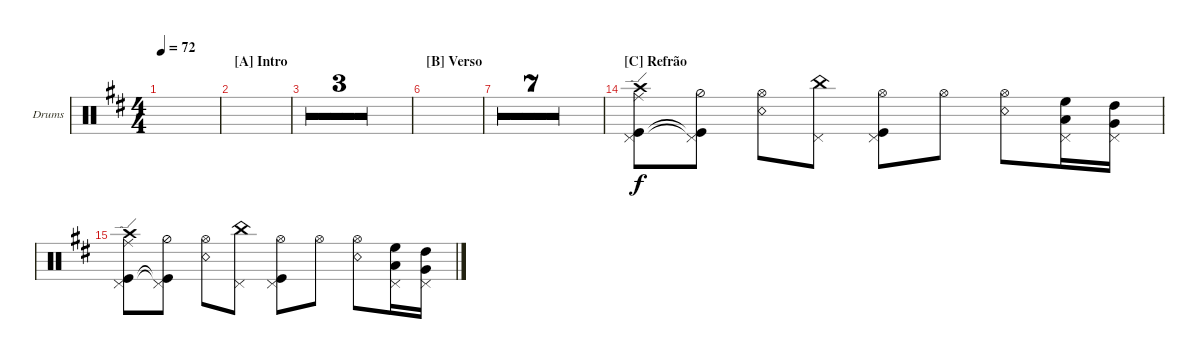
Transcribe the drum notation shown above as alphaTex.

\defaultSystemsLayout 4
\bracketExtendMode groupsimilarinstruments
\firstSystemTrackNameOrientation horizontal
\otherSystemsTrackNameOrientation horizontal
\track ("Drum-hall" "Drums") {multiBarRest instrument percussion}
\staff {score}
\articulation defaults
\ts (4 4)
\tempo 72
\clef neutral
\ks d
|
\section ("A" "Intro")
|
|
|
|
\section ("B" "Verso")
|
|
|
|
|
|
|
|
\section ("C" "Refrão")
("Kick (hit)" "Pedal Hi-Hat (hit)" "Crash high (hit)" "Ride (edge)").8 ("Kick (hit)"{t} "Pedal Hi-Hat (hit)"{t} "Hi-Hat (half)").8 ("Snare (rim shot)" "Hi-Hat (open)").8 ("Pedal Hi-Hat (hit)" "China (hit)").8 ("Kick (hit)" "Pedal Hi-Hat (hit)" "Hi-Hat (open)").8 "Hi-Hat (open)".8 ("Snare (rim shot)" "Hi-Hat (open)").8 ("High Floor Tom (hit)" "Low Tom (hit)" "Pedal Hi-Hat (hit)").16 ("High Tom (hit)" "Very Low Tom (hit)" "Pedal Hi-Hat (hit)").16 |
("Kick (hit)" "Pedal Hi-Hat (hit)" "Crash high (hit)" "Ride (edge)").8 ("Kick (hit)"{t} "Pedal Hi-Hat (hit)"{t} "Hi-Hat (half)").8 ("Snare (rim shot)" "Hi-Hat (open)").8 ("Pedal Hi-Hat (hit)" "China (hit)").8 ("Kick (hit)" "Pedal Hi-Hat (hit)" "Hi-Hat (open)").8 "Hi-Hat (open)".8 ("Snare (rim shot)" "Hi-Hat (open)").8 ("High Floor Tom (hit)" "Low Tom (hit)" "Pedal Hi-Hat (hit)").16 ("High Tom (hit)" "Very Low Tom (hit)" "Pedal Hi-Hat (hit)").16
